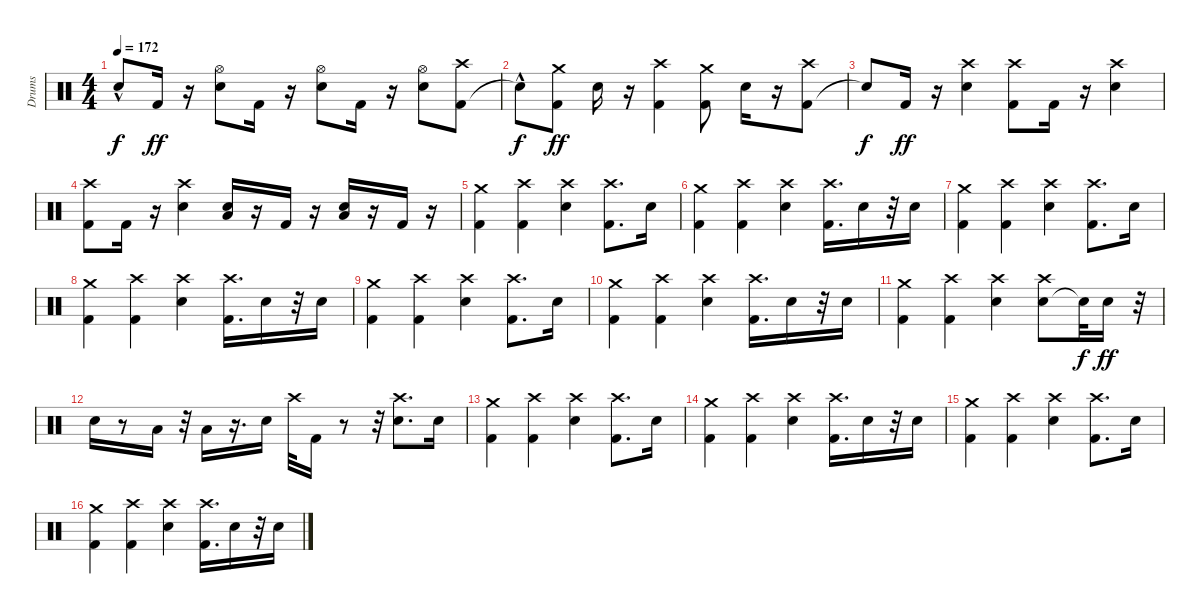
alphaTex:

\track ("Drums" "Drums") {instrument percussion}
\staff {score}
\articulation defaults
\ts (4 4)
\tempo 172
\clef neutral
\ks c "Snare (hit)"{hac t}.8{dy f} "Kick (hit) 2".16{dy ff}
r.16 ("Electric Snare (hit)" "Hi-Hat (open)").8 "Kick (hit) 2".16 r.16 ("Electric Snare (hit)" "Hi-Hat (open)").8 "Kick (hit) 2".16 r.16 ("Electric Snare (hit)" "Hi-Hat (open)").8 ("Kick (hit) 2" "Crash high (hit)").8 |
"Snare (hit)"{hac t}.8{dy f} ("Kick (hit) 2" "Crash medium (hit)").8{dy ff} "Electric Snare (hit)".16 r.16 ("Kick (hit) 2" "Crash high (hit)").4 ("Kick (hit) 2" "Crash medium (hit)").8 "Electric Snare (hit)".16 r.16 ("Kick (hit) 2" "Crash high (hit)").8 |
"Snare (hit)"{t}.8{dy f} "Kick (hit) 2".16{dy ff} r.16 ("Electric Snare (hit)" "Crash high (hit)").4 ("Kick (hit) 2" "Crash high (hit)").8 "Kick (hit) 2".16 r.16 ("Electric Snare (hit)" "Crash high (hit)").4 |
("Kick (hit) 2" "Crash high (hit)").8 "Kick (hit) 2".16 r.16 ("Electric Snare (hit)" "Crash high (hit)").4 ("Electric Snare (hit)" "Low Floor Tom (hit)").16 r.16 "Kick (hit) 2".16 r.16 ("Electric Snare (hit)" "Low Floor Tom (hit)").16 r.16 "Kick (hit) 2".16 r.16 |
("Kick (hit) 2" "Crash medium (hit)").4 ("Kick (hit) 2" "Crash high (hit)").4 ("Electric Snare (hit)" "Crash high (hit)").4 ("Kick (hit) 2" "Crash high (hit)").8{d} "Electric Snare (hit)".16 |
("Kick (hit) 2" "Crash medium (hit)").4 ("Kick (hit) 2" "Crash high (hit)").4 ("Electric Snare (hit)" "Crash high (hit)").4 ("Kick (hit) 2" "Crash high (hit)").16{d} "Electric Snare (hit)".16 r.32 "Electric Snare (hit)".16 |
("Kick (hit) 2" "Crash medium (hit)").4 ("Kick (hit) 2" "Crash high (hit)").4 ("Electric Snare (hit)" "Crash high (hit)").4 ("Kick (hit) 2" "Crash high (hit)").8{d} "Electric Snare (hit)".16 |
("Kick (hit) 2" "Crash medium (hit)").4 ("Kick (hit) 2" "Crash high (hit)").4 ("Electric Snare (hit)" "Crash high (hit)").4 ("Kick (hit) 2" "Crash high (hit)").16{d} "Electric Snare (hit)".16 r.32 "Electric Snare (hit)".16 |
("Kick (hit) 2" "Crash medium (hit)").4 ("Kick (hit) 2" "Crash high (hit)").4 ("Electric Snare (hit)" "Crash high (hit)").4 ("Kick (hit) 2" "Crash high (hit)").8{d} "Electric Snare (hit)".16 |
("Kick (hit) 2" "Crash medium (hit)").4 ("Kick (hit) 2" "Crash high (hit)").4 ("Electric Snare (hit)" "Crash high (hit)").4 ("Kick (hit) 2" "Crash high (hit)").16{d} "Electric Snare (hit)".16 r.32 "Electric Snare (hit)".16 |
("Kick (hit) 2" "Crash medium (hit)").4 ("Kick (hit) 2" "Crash high (hit)").4 ("Electric Snare (hit)" "Crash high (hit)").4 ("Electric Snare (hit)" "Crash high (hit)").8 "Snare (hit)"{t}.32{dy f} "Electric Snare (hit)".16{dy ff} r.32 |
"Electric Snare (hit)".16 r.8 "Low Tom (hit)".16 r.32 "Low Tom (hit)".16 r.16{d} "Electric Snare (hit)".16 "Crash high (hit)".32 "Kick (hit) 2".16 r.8 r.32 ("Electric Snare (hit)" "Crash high (hit)").8{d} "Electric Snare (hit)".16 |
("Kick (hit) 2" "Crash medium (hit)").4 ("Kick (hit) 2" "Crash high (hit)").4 ("Electric Snare (hit)" "Crash high (hit)").4 ("Kick (hit) 2" "Crash high (hit)").8{d} "Electric Snare (hit)".16 |
("Kick (hit) 2" "Crash medium (hit)").4 ("Kick (hit) 2" "Crash high (hit)").4 ("Electric Snare (hit)" "Crash high (hit)").4 ("Kick (hit) 2" "Crash high (hit)").16{d} "Electric Snare (hit)".16 r.32 "Electric Snare (hit)".16 |
("Kick (hit) 2" "Crash medium (hit)").4 ("Kick (hit) 2" "Crash high (hit)").4 ("Electric Snare (hit)" "Crash high (hit)").4 ("Kick (hit) 2" "Crash high (hit)").8{d} "Electric Snare (hit)".16 |
("Kick (hit) 2" "Crash medium (hit)").4 ("Kick (hit) 2" "Crash high (hit)").4 ("Electric Snare (hit)" "Crash high (hit)").4 ("Kick (hit) 2" "Crash high (hit)").16{d} "Electric Snare (hit)".16 r.32 "Electric Snare (hit)".16
